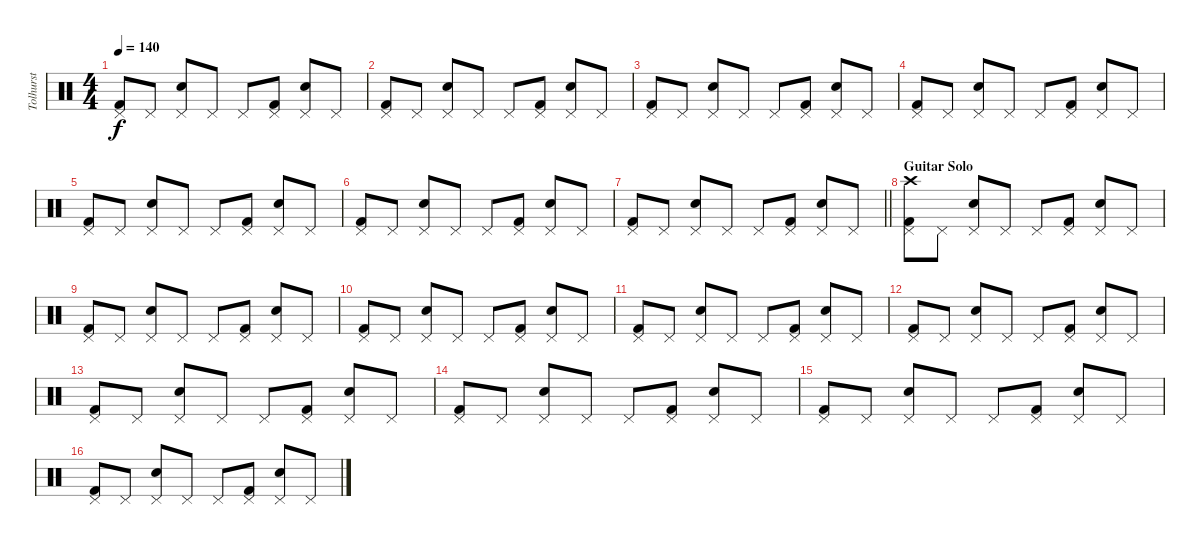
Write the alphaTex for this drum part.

\track ("Tolhurst" "Tolhurst") {instrument percussion}
\staff {score}
\articulation defaults
\ts (4 4)
\tempo 140
\clef neutral
\ks c
("Kick (hit) 2" "Pedal Hi-Hat (hit)").8{dy f} "Pedal Hi-Hat (hit)".8 ("Snare (hit) 2" "Pedal Hi-Hat (hit)").8 "Pedal Hi-Hat (hit)".8 "Pedal Hi-Hat (hit)".8 ("Kick (hit) 2" "Pedal Hi-Hat (hit)").8 ("Snare (hit) 2" "Pedal Hi-Hat (hit)").8 "Pedal Hi-Hat (hit)".8 |
("Kick (hit) 2" "Pedal Hi-Hat (hit)").8 "Pedal Hi-Hat (hit)".8 ("Snare (hit) 2" "Pedal Hi-Hat (hit)").8 "Pedal Hi-Hat (hit)".8 "Pedal Hi-Hat (hit)".8 ("Kick (hit) 2" "Pedal Hi-Hat (hit)").8 ("Snare (hit) 2" "Pedal Hi-Hat (hit)").8 "Pedal Hi-Hat (hit)".8 |
("Kick (hit) 2" "Pedal Hi-Hat (hit)").8 "Pedal Hi-Hat (hit)".8 ("Snare (hit) 2" "Pedal Hi-Hat (hit)").8 "Pedal Hi-Hat (hit)".8 "Pedal Hi-Hat (hit)".8 ("Kick (hit) 2" "Pedal Hi-Hat (hit)").8 ("Snare (hit) 2" "Pedal Hi-Hat (hit)").8 "Pedal Hi-Hat (hit)".8 |
("Kick (hit) 2" "Pedal Hi-Hat (hit)").8 "Pedal Hi-Hat (hit)".8 ("Snare (hit) 2" "Pedal Hi-Hat (hit)").8 "Pedal Hi-Hat (hit)".8 "Pedal Hi-Hat (hit)".8 ("Kick (hit) 2" "Pedal Hi-Hat (hit)").8 ("Snare (hit) 2" "Pedal Hi-Hat (hit)").8 "Pedal Hi-Hat (hit)".8 |
("Kick (hit) 2" "Pedal Hi-Hat (hit)").8 "Pedal Hi-Hat (hit)".8 ("Snare (hit) 2" "Pedal Hi-Hat (hit)").8 "Pedal Hi-Hat (hit)".8 "Pedal Hi-Hat (hit)".8 ("Kick (hit) 2" "Pedal Hi-Hat (hit)").8 ("Snare (hit) 2" "Pedal Hi-Hat (hit)").8 "Pedal Hi-Hat (hit)".8 |
("Kick (hit) 2" "Pedal Hi-Hat (hit)").8 "Pedal Hi-Hat (hit)".8 ("Snare (hit) 2" "Pedal Hi-Hat (hit)").8 "Pedal Hi-Hat (hit)".8 "Pedal Hi-Hat (hit)".8 ("Kick (hit) 2" "Pedal Hi-Hat (hit)").8 ("Snare (hit) 2" "Pedal Hi-Hat (hit)").8 "Pedal Hi-Hat (hit)".8 |
\barLineRight lightlight
("Kick (hit) 2" "Pedal Hi-Hat (hit)").8 "Pedal Hi-Hat (hit)".8 ("Snare (hit) 2" "Pedal Hi-Hat (hit)").8 "Pedal Hi-Hat (hit)".8 "Pedal Hi-Hat (hit)".8 ("Kick (hit) 2" "Pedal Hi-Hat (hit)").8 ("Snare (hit) 2" "Pedal Hi-Hat (hit)").8 "Pedal Hi-Hat (hit)".8 |
\section ("" "Guitar Solo")
("Kick (hit) 2" "Pedal Hi-Hat (hit)" "Crash high (hit)").8 "Pedal Hi-Hat (hit)".8 ("Snare (hit) 2" "Pedal Hi-Hat (hit)").8 "Pedal Hi-Hat (hit)".8 "Pedal Hi-Hat (hit)".8 ("Kick (hit) 2" "Pedal Hi-Hat (hit)").8 ("Snare (hit) 2" "Pedal Hi-Hat (hit)").8 "Pedal Hi-Hat (hit)".8 |
("Kick (hit) 2" "Pedal Hi-Hat (hit)").8 "Pedal Hi-Hat (hit)".8 ("Snare (hit) 2" "Pedal Hi-Hat (hit)").8 "Pedal Hi-Hat (hit)".8 "Pedal Hi-Hat (hit)".8 ("Kick (hit) 2" "Pedal Hi-Hat (hit)").8 ("Snare (hit) 2" "Pedal Hi-Hat (hit)").8 "Pedal Hi-Hat (hit)".8 |
("Kick (hit) 2" "Pedal Hi-Hat (hit)").8 "Pedal Hi-Hat (hit)".8 ("Snare (hit) 2" "Pedal Hi-Hat (hit)").8 "Pedal Hi-Hat (hit)".8 "Pedal Hi-Hat (hit)".8 ("Kick (hit) 2" "Pedal Hi-Hat (hit)").8 ("Snare (hit) 2" "Pedal Hi-Hat (hit)").8 "Pedal Hi-Hat (hit)".8 |
("Kick (hit) 2" "Pedal Hi-Hat (hit)").8 "Pedal Hi-Hat (hit)".8 ("Snare (hit) 2" "Pedal Hi-Hat (hit)").8 "Pedal Hi-Hat (hit)".8 "Pedal Hi-Hat (hit)".8 ("Kick (hit) 2" "Pedal Hi-Hat (hit)").8 ("Snare (hit) 2" "Pedal Hi-Hat (hit)").8 "Pedal Hi-Hat (hit)".8 |
("Kick (hit) 2" "Pedal Hi-Hat (hit)").8 "Pedal Hi-Hat (hit)".8 ("Snare (hit) 2" "Pedal Hi-Hat (hit)").8 "Pedal Hi-Hat (hit)".8 "Pedal Hi-Hat (hit)".8 ("Kick (hit) 2" "Pedal Hi-Hat (hit)").8 ("Snare (hit) 2" "Pedal Hi-Hat (hit)").8 "Pedal Hi-Hat (hit)".8 |
("Kick (hit) 2" "Pedal Hi-Hat (hit)").8 "Pedal Hi-Hat (hit)".8 ("Snare (hit) 2" "Pedal Hi-Hat (hit)").8 "Pedal Hi-Hat (hit)".8 "Pedal Hi-Hat (hit)".8 ("Kick (hit) 2" "Pedal Hi-Hat (hit)").8 ("Snare (hit) 2" "Pedal Hi-Hat (hit)").8 "Pedal Hi-Hat (hit)".8 |
("Kick (hit) 2" "Pedal Hi-Hat (hit)").8 "Pedal Hi-Hat (hit)".8 ("Snare (hit) 2" "Pedal Hi-Hat (hit)").8 "Pedal Hi-Hat (hit)".8 "Pedal Hi-Hat (hit)".8 ("Kick (hit) 2" "Pedal Hi-Hat (hit)").8 ("Snare (hit) 2" "Pedal Hi-Hat (hit)").8 "Pedal Hi-Hat (hit)".8 |
("Kick (hit) 2" "Pedal Hi-Hat (hit)").8 "Pedal Hi-Hat (hit)".8 ("Snare (hit) 2" "Pedal Hi-Hat (hit)").8 "Pedal Hi-Hat (hit)".8 "Pedal Hi-Hat (hit)".8 ("Kick (hit) 2" "Pedal Hi-Hat (hit)").8 ("Snare (hit) 2" "Pedal Hi-Hat (hit)").8 "Pedal Hi-Hat (hit)".8 |
("Kick (hit) 2" "Pedal Hi-Hat (hit)").8 "Pedal Hi-Hat (hit)".8 ("Snare (hit) 2" "Pedal Hi-Hat (hit)").8 "Pedal Hi-Hat (hit)".8 "Pedal Hi-Hat (hit)".8 ("Kick (hit) 2" "Pedal Hi-Hat (hit)").8 ("Snare (hit) 2" "Pedal Hi-Hat (hit)").8 "Pedal Hi-Hat (hit)".8
